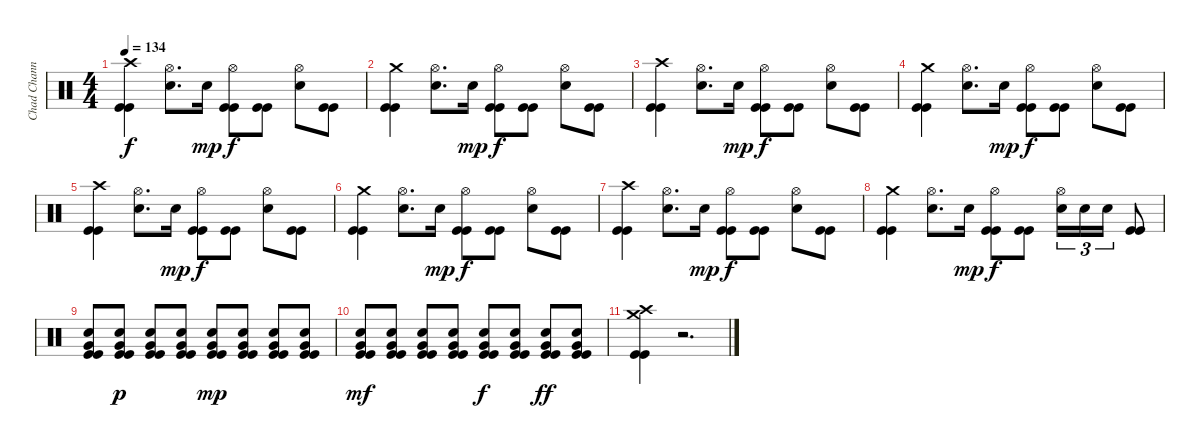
\track ("Chad Channing" "Chad Chann") {instrument percussion}
\staff {score}
\articulation defaults
\ts (4 4)
\tempo 134
\clef neutral
\ks c
("Crash high (hit)" "Kick (hit)" "Kick (hit)").4{dy f} ("Hi-Hat (open)" "Electric Snare (hit)").8{d} "Electric Snare (hit)".16{dy mp} ("Hi-Hat (open)" "Kick (hit)" "Kick (hit)").8{dy f} ("Kick (hit)" "Kick (hit)").8 ("Hi-Hat (open)" "Electric Snare (hit)").8 ("Kick (hit)" "Kick (hit)").8 |
("Crash medium (hit)" "Kick (hit)" "Kick (hit)").4 ("Hi-Hat (open)" "Electric Snare (hit)").8{d} "Electric Snare (hit)".16{dy mp} ("Hi-Hat (open)" "Kick (hit)" "Kick (hit)").8{dy f} ("Kick (hit)" "Kick (hit)").8 ("Hi-Hat (open)" "Electric Snare (hit)").8 ("Kick (hit)" "Kick (hit)").8 |
("Crash high (hit)" "Kick (hit)" "Kick (hit)").4 ("Hi-Hat (open)" "Electric Snare (hit)").8{d} "Electric Snare (hit)".16{dy mp} ("Hi-Hat (open)" "Kick (hit)" "Kick (hit)").8{dy f} ("Kick (hit)" "Kick (hit)").8 ("Hi-Hat (open)" "Electric Snare (hit)").8 ("Kick (hit)" "Kick (hit)").8 |
("Crash medium (hit)" "Kick (hit)" "Kick (hit)").4 ("Hi-Hat (open)" "Electric Snare (hit)").8{d} "Electric Snare (hit)".16{dy mp} ("Hi-Hat (open)" "Kick (hit)" "Kick (hit)").8{dy f} ("Kick (hit)" "Kick (hit)").8 ("Hi-Hat (open)" "Electric Snare (hit)").8 ("Kick (hit)" "Kick (hit)").8 |
("Crash high (hit)" "Kick (hit)" "Kick (hit)").4 ("Hi-Hat (open)" "Electric Snare (hit)").8{d} "Electric Snare (hit)".16{dy mp} ("Hi-Hat (open)" "Kick (hit)" "Kick (hit)").8{dy f} ("Kick (hit)" "Kick (hit)").8 ("Hi-Hat (open)" "Electric Snare (hit)").8 ("Kick (hit)" "Kick (hit)").8 |
("Crash medium (hit)" "Kick (hit)" "Kick (hit)").4 ("Hi-Hat (open)" "Electric Snare (hit)").8{d} "Electric Snare (hit)".16{dy mp} ("Hi-Hat (open)" "Kick (hit)" "Kick (hit)").8{dy f} ("Kick (hit)" "Kick (hit)").8 ("Hi-Hat (open)" "Electric Snare (hit)").8 ("Kick (hit)" "Kick (hit)").8 |
("Crash high (hit)" "Kick (hit)" "Kick (hit)").4 ("Hi-Hat (open)" "Electric Snare (hit)").8{d} "Electric Snare (hit)".16{dy mp} ("Hi-Hat (open)" "Kick (hit)" "Kick (hit)").8{dy f} ("Kick (hit)" "Kick (hit)").8 ("Hi-Hat (open)" "Electric Snare (hit)").8 ("Kick (hit)" "Kick (hit)").8 |
("Crash medium (hit)" "Kick (hit)" "Kick (hit)").4 ("Hi-Hat (open)" "Electric Snare (hit)").8{d} "Electric Snare (hit)".16{dy mp} ("Hi-Hat (open)" "Kick (hit)" "Kick (hit)").8{dy f} ("Kick (hit)" "Kick (hit)").8 ("Hi-Hat (open)" "Electric Snare (hit)").16{tu (3 2)} "Electric Snare (hit)".16{tu (3 2)} "Electric Snare (hit)".16{tu (3 2)} ("Kick (hit)" "Kick (hit)").8 |
("Electric Snare (hit)" "Very Low Tom (hit)" "Kick (hit)" "Kick (hit)").8 ("Electric Snare (hit)" "Very Low Tom (hit)" "Kick (hit)" "Kick (hit)").8{dy p} ("Electric Snare (hit)" "Very Low Tom (hit)" "Kick (hit)" "Kick (hit)").8 ("Electric Snare (hit)" "Very Low Tom (hit)" "Kick (hit)" "Kick (hit)").8 ("Electric Snare (hit)" "Very Low Tom (hit)" "Kick (hit)" "Kick (hit)").8{dy mp} ("Electric Snare (hit)" "Very Low Tom (hit)" "Kick (hit)" "Kick (hit)").8 ("Electric Snare (hit)" "Very Low Tom (hit)" "Kick (hit)" "Kick (hit)").8 ("Electric Snare (hit)" "Very Low Tom (hit)" "Kick (hit)" "Kick (hit)").8 |
("Electric Snare (hit)" "Very Low Tom (hit)" "Kick (hit)" "Kick (hit)").8{dy mf} ("Electric Snare (hit)" "Very Low Tom (hit)" "Kick (hit)" "Kick (hit)").8 ("Electric Snare (hit)" "Very Low Tom (hit)" "Kick (hit)" "Kick (hit)").8 ("Electric Snare (hit)" "Very Low Tom (hit)" "Kick (hit)" "Kick (hit)").8 ("Electric Snare (hit)" "Very Low Tom (hit)" "Kick (hit)" "Kick (hit)").8{dy f} ("Electric Snare (hit)" "Very Low Tom (hit)" "Kick (hit)" "Kick (hit)").8 ("Electric Snare (hit)" "Very Low Tom (hit)" "Kick (hit)" "Kick (hit)").8{dy ff} ("Electric Snare (hit)" "Very Low Tom (hit)" "Kick (hit)" "Kick (hit)").8 |
("Crash medium (hit)" "Crash high (hit)" "Kick (hit)" "Kick (hit)").4 r.2{d}
